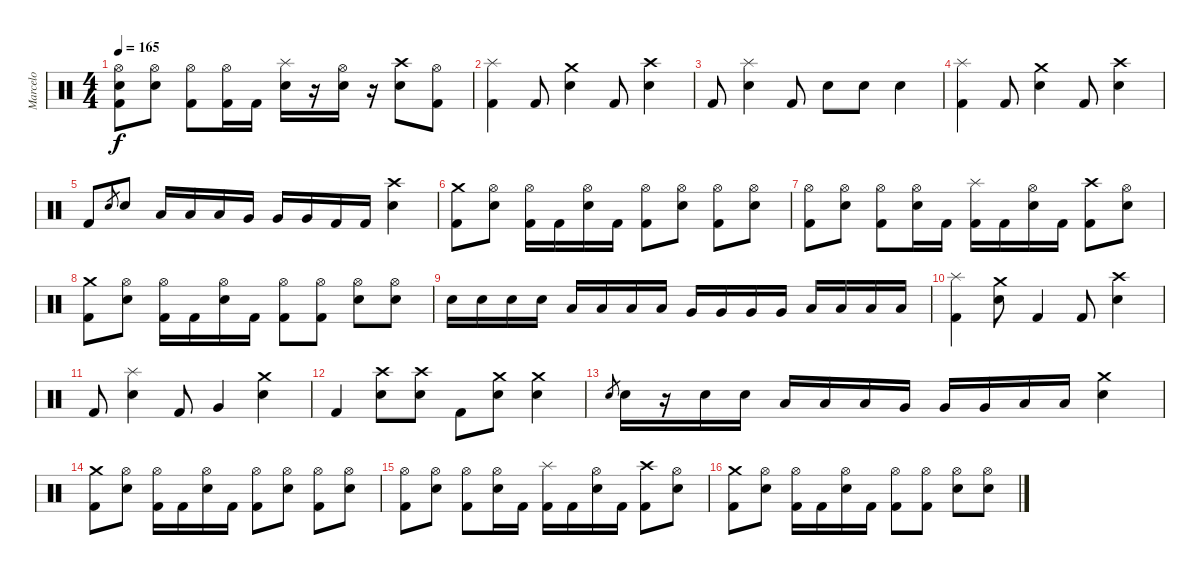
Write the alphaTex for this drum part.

\track ("Marcelo" "Marcelo") {instrument percussion}
\staff {score}
\articulation defaults
\ts (4 4)
\tempo 165
\clef neutral
\ks c
("Hi-Hat (open)" "Electric Snare (hit)" "Kick (hit) 2").8{dy f} ("Hi-Hat (open)" "Electric Snare (hit)").8 ("Hi-Hat (open)" "Kick (hit) 2").8 ("Hi-Hat (open)" "Kick (hit) 2").16 "Kick (hit) 2".16 ("Splash (hit)" "Electric Snare (hit)").16 r.16 ("Hi-Hat (open)" "Electric Snare (hit)").16 r.16 ("Crash high (hit)" "Electric Snare (hit)").8 ("Hi-Hat (open)" "Kick (hit) 2").8 |
("Splash (hit)" "Kick (hit) 2").4 "Kick (hit) 2".8 ("Crash medium (hit)" "Electric Snare (hit)").4 "Kick (hit) 2".8 ("Crash high (hit)" "Electric Snare (hit)").4 |
"Kick (hit) 2".8 ("Splash (hit)" "Electric Snare (hit)").4 "Kick (hit) 2".8 "Electric Snare (hit)".8 "Electric Snare (hit)".8 "Electric Snare (hit)".4 |
("Splash (hit)" "Kick (hit) 2").4 "Kick (hit) 2".8 ("Crash medium (hit)" "Electric Snare (hit)").4 "Kick (hit) 2".8 ("Crash high (hit)" "Electric Snare (hit)").4 |
"Kick (hit) 2".8 "Electric Snare (hit)".8{gr} "Electric Snare (hit)".8 "Low Tom (hit)".16 "Low Tom (hit)".16 "Low Tom (hit)".16 "Very Low Tom (hit)".16 "Very Low Tom (hit)".16 "Very Low Tom (hit)".16 "Kick (hit) 2".16 "Kick (hit) 2".16 ("Crash high (hit)" "Electric Snare (hit)").4 |
("Crash medium (hit)" "Kick (hit) 2").8 ("Hi-Hat (open)" "Electric Snare (hit)").8 ("Hi-Hat (open)" "Kick (hit) 2").16 "Kick (hit) 2".16 ("Hi-Hat (open)" "Electric Snare (hit)").16 "Kick (hit) 2".16 ("Hi-Hat (open)" "Kick (hit) 2").8 ("Hi-Hat (open)" "Electric Snare (hit)").8 ("Hi-Hat (open)" "Kick (hit) 2").8 ("Hi-Hat (open)" "Electric Snare (hit)").8 |
("Hi-Hat (open)" "Kick (hit) 2").8 ("Hi-Hat (open)" "Electric Snare (hit)").8 ("Hi-Hat (open)" "Kick (hit) 2").8 ("Hi-Hat (open)" "Electric Snare (hit)").16 "Kick (hit) 2".16 ("Splash (hit)" "Kick (hit) 2").16 "Kick (hit) 2".16 ("Hi-Hat (open)" "Electric Snare (hit)").16 "Kick (hit) 2".16 ("Crash high (hit)" "Kick (hit) 2").8 ("Hi-Hat (open)" "Electric Snare (hit)").8 |
("Crash medium (hit)" "Kick (hit) 2").8 ("Hi-Hat (open)" "Electric Snare (hit)").8 ("Hi-Hat (open)" "Kick (hit) 2").16 "Kick (hit) 2".16 ("Hi-Hat (open)" "Electric Snare (hit)").16 "Kick (hit) 2".16 ("Hi-Hat (open)" "Kick (hit) 2").8 ("Hi-Hat (open)" "Kick (hit) 2").8 ("Hi-Hat (open)" "Electric Snare (hit)").8 ("Hi-Hat (open)" "Electric Snare (hit)").8 |
"Electric Snare (hit)".16 "Electric Snare (hit)".16 "Electric Snare (hit)".16 "Electric Snare (hit)".16 "Low Tom (hit)".16 "Low Tom (hit)".16 "Low Tom (hit)".16 "Low Tom (hit)".16 "Very Low Tom (hit)".16 "Very Low Tom (hit)".16 "Very Low Tom (hit)".16 "Very Low Tom (hit)".16 "Low Floor Tom (hit)".16 "Low Floor Tom (hit)".16 "Low Floor Tom (hit)".16 "Low Floor Tom (hit)".16 |
("Splash (hit)" "Kick (hit) 2").4 ("Crash medium (hit)" "Electric Snare (hit)").8 "Kick (hit) 2".4 "Kick (hit) 2".8 ("Crash high (hit)" "Electric Snare (hit)").4 |
"Kick (hit) 2".8 ("Splash (hit)" "Electric Snare (hit)").4 "Kick (hit) 2".8 "Very Low Tom (hit)".4 ("Crash medium (hit)" "Electric Snare (hit)").4 |
"Kick (hit) 2".4 ("Crash high (hit)" "Electric Snare (hit)").8 ("Crash high (hit)" "Electric Snare (hit)").8 "Kick (hit) 2".8 ("Crash medium (hit)" "Electric Snare (hit)").8 ("Crash medium (hit)" "Electric Snare (hit)").4 |
"Electric Snare (hit)".8{gr} "Electric Snare (hit)".16 r.16 "Electric Snare (hit)".16 "Electric Snare (hit)".16 "Low Tom (hit)".16 "Low Tom (hit)".16 "Low Tom (hit)".16 "Very Low Tom (hit)".16 "Very Low Tom (hit)".16 "Very Low Tom (hit)".16 "Low Floor Tom (hit)".16 "Low Floor Tom (hit)".16 ("Crash medium (hit)" "Electric Snare (hit)").4 |
("Crash medium (hit)" "Kick (hit) 2").8 ("Hi-Hat (open)" "Electric Snare (hit)").8 ("Hi-Hat (open)" "Kick (hit) 2").16 "Kick (hit) 2".16 ("Hi-Hat (open)" "Electric Snare (hit)").16 "Kick (hit) 2".16 ("Hi-Hat (open)" "Kick (hit) 2").8 ("Hi-Hat (open)" "Electric Snare (hit)").8 ("Hi-Hat (open)" "Kick (hit) 2").8 ("Hi-Hat (open)" "Electric Snare (hit)").8 |
("Hi-Hat (open)" "Kick (hit) 2").8 ("Hi-Hat (open)" "Electric Snare (hit)").8 ("Hi-Hat (open)" "Kick (hit) 2").8 ("Hi-Hat (open)" "Electric Snare (hit)").16 "Kick (hit) 2".16 ("Splash (hit)" "Kick (hit) 2").16 "Kick (hit) 2".16 ("Hi-Hat (open)" "Electric Snare (hit)").16 "Kick (hit) 2".16 ("Crash high (hit)" "Kick (hit) 2").8 ("Hi-Hat (open)" "Electric Snare (hit)").8 |
("Crash medium (hit)" "Kick (hit) 2").8 ("Hi-Hat (open)" "Electric Snare (hit)").8 ("Hi-Hat (open)" "Kick (hit) 2").16 "Kick (hit) 2".16 ("Hi-Hat (open)" "Electric Snare (hit)").16 "Kick (hit) 2".16 ("Hi-Hat (open)" "Kick (hit) 2").8 ("Hi-Hat (open)" "Kick (hit) 2").8 ("Hi-Hat (open)" "Electric Snare (hit)").8 ("Hi-Hat (open)" "Electric Snare (hit)").8
